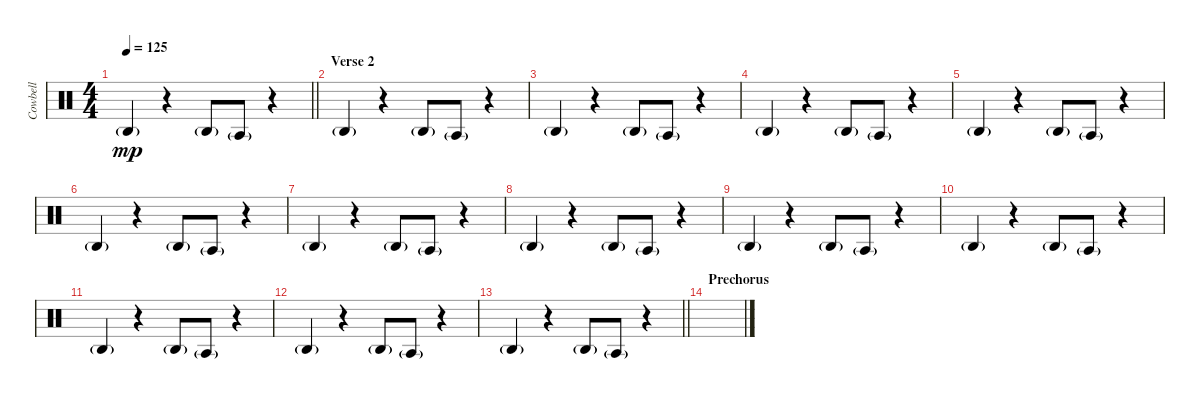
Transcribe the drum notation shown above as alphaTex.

\track ("Cowbell" "Cowbell") {instrument percussion}
\staff {score}
\articulation defaults
\ts (4 4)
\tempo 125
\clef neutral
\barLineRight lightlight
\ks c "Agogo high (hit)"{g}.4{dy mp}
r.4 "Agogo high (hit)"{g}.8 "Agogo tow (hit)"{g}.8 r.4 |
\section ("" "Verse 2")
"Agogo high (hit)"{g}.4 r.4 "Agogo high (hit)"{g}.8 "Agogo tow (hit)"{g}.8 r.4 |
"Agogo high (hit)"{g}.4 r.4 "Agogo high (hit)"{g}.8 "Agogo tow (hit)"{g}.8 r.4 |
"Agogo high (hit)"{g}.4 r.4 "Agogo high (hit)"{g}.8 "Agogo tow (hit)"{g}.8 r.4 |
"Agogo high (hit)"{g}.4 r.4 "Agogo high (hit)"{g}.8 "Agogo tow (hit)"{g}.8 r.4 |
"Agogo high (hit)"{g}.4 r.4 "Agogo high (hit)"{g}.8 "Agogo tow (hit)"{g}.8 r.4 |
"Agogo high (hit)"{g}.4 r.4 "Agogo high (hit)"{g}.8 "Agogo tow (hit)"{g}.8 r.4 |
"Agogo high (hit)"{g}.4 r.4 "Agogo high (hit)"{g}.8 "Agogo tow (hit)"{g}.8 r.4 |
"Agogo high (hit)"{g}.4 r.4 "Agogo high (hit)"{g}.8 "Agogo tow (hit)"{g}.8 r.4 |
"Agogo high (hit)"{g}.4 r.4 "Agogo high (hit)"{g}.8 "Agogo tow (hit)"{g}.8 r.4 |
"Agogo high (hit)"{g}.4 r.4 "Agogo high (hit)"{g}.8 "Agogo tow (hit)"{g}.8 r.4 |
"Agogo high (hit)"{g}.4 r.4 "Agogo high (hit)"{g}.8 "Agogo tow (hit)"{g}.8 r.4 |
\barLineRight lightlight "Agogo high (hit)"{g}.4
r.4 "Agogo high (hit)"{g}.8 "Agogo tow (hit)"{g}.8 r.4 |
\section ("" "Prechorus")
